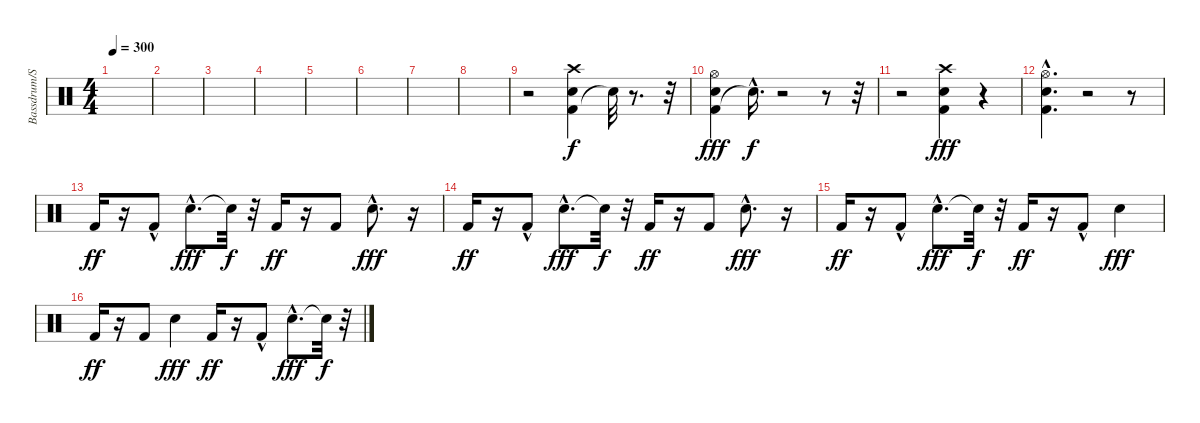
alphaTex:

\track ("Bassdrum/Snare" "Bassdrum/S") {instrument percussion}
\staff {score}
\articulation defaults
\ts (4 4)
\tempo 300
\clef neutral
\ks c
|
|
|
|
|
|
|
|
r.2 ("Kick (hit) 2" "Snare (hit) 2" "Crash high (hit)").4 "Snare (hit)"{t}.32{dy f} r.8{d} r.32 |
("Kick (hit) 2" "Snare (hit) 2" "Hi-Hat (open)").4{dy fff} "Snare (hit)"{hac t}.16{d dy f} r.2 r.8 r.32 |
r.2 ("Kick (hit) 2" "Snare (hit) 2" "Crash high (hit)").4{dy fff} r.4 |
("Kick (hit) 2"{hac} "Snare (hit) 2" "Hi-Hat (open)"{hac}).4{d} r.2 r.8 |
"Kick (hit) 2".16{dy ff} r.16 "Kick (hit) 2"{hac}.8 "Snare (hit) 2"{hac}.8{d dy fff} "Snare (hit)"{t}.32{dy f} r.32 "Kick (hit) 2".16{dy ff} r.16 "Kick (hit) 2".8 "Snare (hit) 2"{hac}.8{d dy fff} r.16 |
"Kick (hit) 2".16{dy ff} r.16 "Kick (hit) 2"{hac}.8 "Snare (hit) 2"{hac}.8{d dy fff} "Snare (hit)"{t}.32{dy f} r.32 "Kick (hit) 2".16{dy ff} r.16 "Kick (hit) 2".8 "Snare (hit) 2"{hac}.8{d dy fff} r.16 |
"Kick (hit) 2".16{dy ff} r.16 "Kick (hit) 2"{hac}.8 "Snare (hit) 2"{hac}.8{d dy fff} "Snare (hit)"{t}.32{dy f} r.32 "Kick (hit) 2".16{dy ff} r.16 "Kick (hit) 2"{hac}.8 "Snare (hit) 2".4{dy fff} |
"Kick (hit) 2".16{dy ff} r.16 "Kick (hit) 2".8 "Snare (hit) 2".4{dy fff} "Kick (hit) 2".16{dy ff} r.16 "Kick (hit) 2"{hac}.8 "Snare (hit) 2"{hac}.8{d dy fff} "Snare (hit)"{t}.32{dy f} r.32
